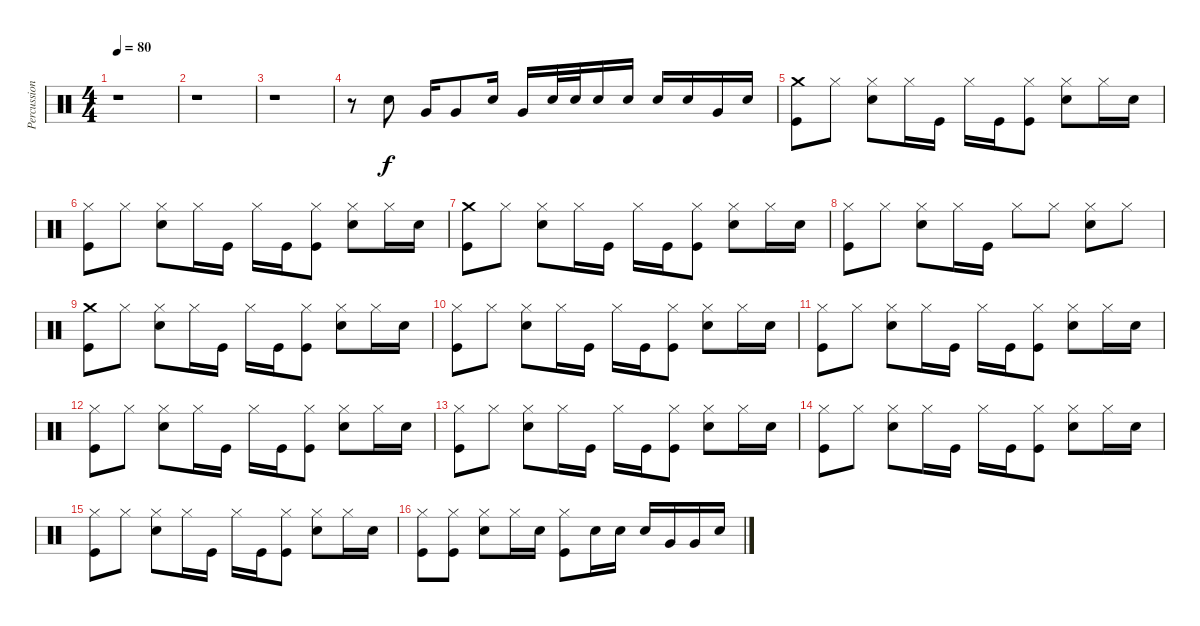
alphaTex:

\track ("Percussion" "Percussion") {instrument percussion}
\staff {score}
\articulation defaults
\ts (4 4)
\tempo 80
\clef neutral
\ks c
r.1{dy f} |
r.1 |
r.1 |
r.8 "Snare (hit) 2".8 "Very Low Tom (hit)".16 "Very Low Tom (hit)".8 "Snare (hit) 2".16 "Very Low Tom (hit)".16 "Snare (hit) 2".32 "Snare (hit) 2".32 "Snare (hit) 2".16 "Snare (hit) 2".16 "Snare (hit) 2".16 "Snare (hit) 2".16 "Very Low Tom (hit)".16 "Snare (hit) 2".16 |
("Crash medium (hit)" "Kick (hit)").8 "Hi-Hat (closed)".8 ("Hi-Hat (closed)" "Snare (hit) 2").8 "Hi-Hat (closed)".16 "Kick (hit)".16 "Hi-Hat (closed)".16 "Kick (hit)".16 ("Hi-Hat (closed)" "Kick (hit)").8 ("Hi-Hat (closed)" "Snare (hit) 2").8 "Hi-Hat (closed)".16 "Snare (hit) 2".16 |
("Hi-Hat (closed)" "Kick (hit)").8 "Hi-Hat (closed)".8 ("Hi-Hat (closed)" "Snare (hit) 2").8 "Hi-Hat (closed)".16 "Kick (hit)".16 "Hi-Hat (closed)".16 "Kick (hit)".16 ("Hi-Hat (closed)" "Kick (hit)").8 ("Hi-Hat (closed)" "Snare (hit) 2").8 "Hi-Hat (closed)".16 "Snare (hit) 2".16 |
("Crash medium (hit)" "Kick (hit)").8 "Hi-Hat (closed)".8 ("Hi-Hat (closed)" "Snare (hit) 2").8 "Hi-Hat (closed)".16 "Kick (hit)".16 "Hi-Hat (closed)".16 "Kick (hit)".16 ("Hi-Hat (closed)" "Kick (hit)").8 ("Hi-Hat (closed)" "Snare (hit) 2").8 "Hi-Hat (closed)".16 "Snare (hit) 2".16 |
("Hi-Hat (closed)" "Kick (hit)").8 "Hi-Hat (closed)".8 ("Hi-Hat (closed)" "Snare (hit) 2").8 "Hi-Hat (closed)".16 "Kick (hit)".16 "Hi-Hat (closed)".8 "Hi-Hat (closed)".8 ("Hi-Hat (closed)" "Snare (hit) 2").8 "Hi-Hat (closed)".8 |
("Crash medium (hit)" "Kick (hit)").8 "Hi-Hat (closed)".8 ("Hi-Hat (closed)" "Snare (hit) 2").8 "Hi-Hat (closed)".16 "Kick (hit)".16 "Hi-Hat (closed)".16 "Kick (hit)".16 ("Hi-Hat (closed)" "Kick (hit)").8 ("Hi-Hat (closed)" "Snare (hit) 2").8 "Hi-Hat (closed)".16 "Snare (hit) 2".16 |
("Hi-Hat (closed)" "Kick (hit)").8 "Hi-Hat (closed)".8 ("Hi-Hat (closed)" "Snare (hit) 2").8 "Hi-Hat (closed)".16 "Kick (hit)".16 "Hi-Hat (closed)".16 "Kick (hit)".16 ("Hi-Hat (closed)" "Kick (hit)").8 ("Hi-Hat (closed)" "Snare (hit) 2").8 "Hi-Hat (closed)".16 "Snare (hit) 2".16 |
("Hi-Hat (closed)" "Kick (hit)").8 "Hi-Hat (closed)".8 ("Hi-Hat (closed)" "Snare (hit) 2").8 "Hi-Hat (closed)".16 "Kick (hit)".16 "Hi-Hat (closed)".16 "Kick (hit)".16 ("Hi-Hat (closed)" "Kick (hit)").8 ("Hi-Hat (closed)" "Snare (hit) 2").8 "Hi-Hat (closed)".16 "Snare (hit) 2".16 |
("Hi-Hat (closed)" "Kick (hit)").8 "Hi-Hat (closed)".8 ("Hi-Hat (closed)" "Snare (hit) 2").8 "Hi-Hat (closed)".16 "Kick (hit)".16 "Hi-Hat (closed)".16 "Kick (hit)".16 ("Hi-Hat (closed)" "Kick (hit)").8 ("Hi-Hat (closed)" "Snare (hit) 2").8 "Hi-Hat (closed)".16 "Snare (hit) 2".16 |
("Hi-Hat (closed)" "Kick (hit)").8 "Hi-Hat (closed)".8 ("Hi-Hat (closed)" "Snare (hit) 2").8 "Hi-Hat (closed)".16 "Kick (hit)".16 "Hi-Hat (closed)".16 "Kick (hit)".16 ("Hi-Hat (closed)" "Kick (hit)").8 ("Hi-Hat (closed)" "Snare (hit) 2").8 "Hi-Hat (closed)".16 "Snare (hit) 2".16 |
("Hi-Hat (closed)" "Kick (hit)").8 "Hi-Hat (closed)".8 ("Hi-Hat (closed)" "Snare (hit) 2").8 "Hi-Hat (closed)".16 "Kick (hit)".16 "Hi-Hat (closed)".16 "Kick (hit)".16 ("Hi-Hat (closed)" "Kick (hit)").8 ("Hi-Hat (closed)" "Snare (hit) 2").8 "Hi-Hat (closed)".16 "Snare (hit) 2".16 |
("Hi-Hat (closed)" "Kick (hit)").8 "Hi-Hat (closed)".8 ("Hi-Hat (closed)" "Snare (hit) 2").8 "Hi-Hat (closed)".16 "Kick (hit)".16 "Hi-Hat (closed)".16 "Kick (hit)".16 ("Hi-Hat (closed)" "Kick (hit)").8 ("Hi-Hat (closed)" "Snare (hit) 2").8 "Hi-Hat (closed)".16 "Snare (hit) 2".16 |
("Hi-Hat (closed)" "Kick (hit)").8 ("Hi-Hat (closed)" "Kick (hit)").8 ("Hi-Hat (closed)" "Snare (hit) 2").8 "Hi-Hat (closed)".16 "Snare (hit) 2".16 ("Hi-Hat (closed)" "Kick (hit)").8 "Snare (hit) 2".16 "Snare (hit) 2".16 "Snare (hit) 2".16 "Very Low Tom (hit)".16 "Very Low Tom (hit)".16 "Snare (hit) 2".16
